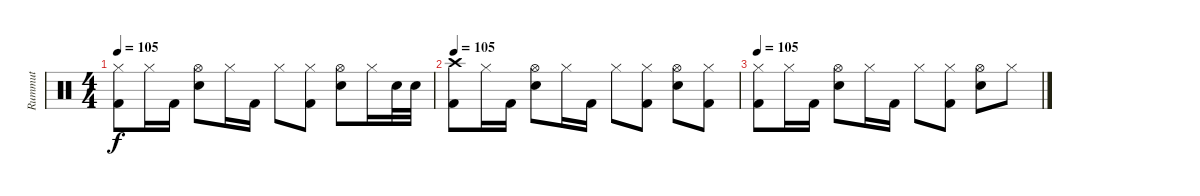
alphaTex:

\track ("Rummut" "Rummut") {instrument percussion}
\staff {score}
\articulation defaults
\ts (4 4)
\tempo 105
\clef neutral
\ks c
("Hi-Hat (closed)" "Kick (hit) 2").8{dy f} "Hi-Hat (closed)".16 "Kick (hit) 2".16 ("Hi-Hat (open)" "Snare (hit) 2").8 "Hi-Hat (closed)".16 "Kick (hit) 2".16 "Hi-Hat (closed)".8 ("Hi-Hat (closed)" "Kick (hit) 2").8 ("Hi-Hat (open)" "Snare (hit) 2").8 "Hi-Hat (closed)".16 "Snare (hit) 2".32 "Snare (hit) 2".32 |
\tempo 105
("Crash high (hit)" "Kick (hit) 2").8 "Hi-Hat (closed)".16 "Kick (hit) 2".16 ("Hi-Hat (open)" "Snare (hit) 2").8 "Hi-Hat (closed)".16 "Kick (hit) 2".16 "Hi-Hat (closed)".8 ("Hi-Hat (closed)" "Kick (hit) 2").8 ("Hi-Hat (open)" "Snare (hit) 2").8 ("Hi-Hat (closed)" "Kick (hit) 2").8 |
\tempo 105
("Hi-Hat (closed)" "Kick (hit) 2").8 "Hi-Hat (closed)".16 "Kick (hit) 2".16 ("Hi-Hat (open)" "Snare (hit) 2").8 "Hi-Hat (closed)".16 "Kick (hit) 2".16 "Hi-Hat (closed)".8 ("Hi-Hat (closed)" "Kick (hit) 2").8 ("Hi-Hat (open)" "Snare (hit) 2").8 "Hi-Hat (closed)".8
